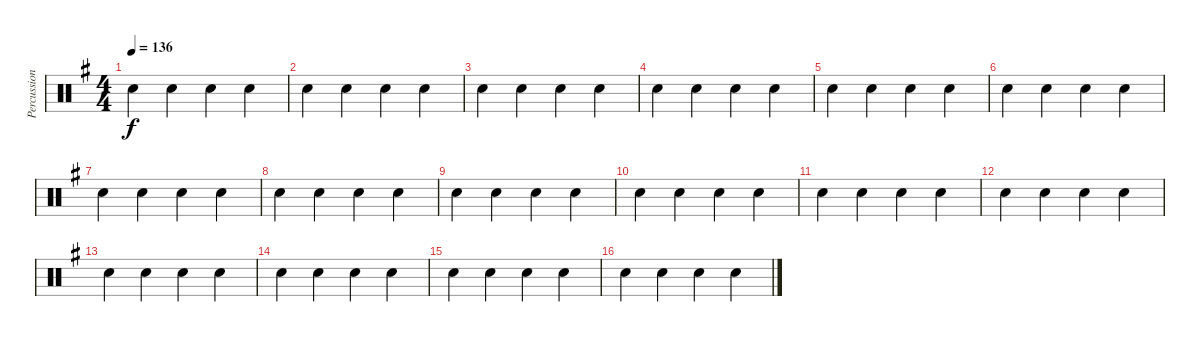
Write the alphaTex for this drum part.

\track ("Percussions" "Percussion") {instrument percussion}
\staff {score}
\articulation defaults
\ts (4 4)
\tempo 136
\clef neutral
\ks g "Hand Clap (hit)".4{dy f} "Hand Clap (hit)".4 "Hand Clap (hit)".4 "Hand Clap (hit)".4
|
"Hand Clap (hit)".4 "Hand Clap (hit)".4 "Hand Clap (hit)".4 "Hand Clap (hit)".4 |
"Hand Clap (hit)".4 "Hand Clap (hit)".4 "Hand Clap (hit)".4 "Hand Clap (hit)".4 |
"Hand Clap (hit)".4 "Hand Clap (hit)".4 "Hand Clap (hit)".4 "Hand Clap (hit)".4 |
"Hand Clap (hit)".4 "Hand Clap (hit)".4 "Hand Clap (hit)".4 "Hand Clap (hit)".4 |
"Hand Clap (hit)".4 "Hand Clap (hit)".4 "Hand Clap (hit)".4 "Hand Clap (hit)".4 |
"Hand Clap (hit)".4 "Hand Clap (hit)".4 "Hand Clap (hit)".4 "Hand Clap (hit)".4 |
"Hand Clap (hit)".4 "Hand Clap (hit)".4 "Hand Clap (hit)".4 "Hand Clap (hit)".4 |
"Hand Clap (hit)".4 "Hand Clap (hit)".4 "Hand Clap (hit)".4 "Hand Clap (hit)".4 |
"Hand Clap (hit)".4 "Hand Clap (hit)".4 "Hand Clap (hit)".4 "Hand Clap (hit)".4 |
"Hand Clap (hit)".4 "Hand Clap (hit)".4 "Hand Clap (hit)".4 "Hand Clap (hit)".4 |
"Hand Clap (hit)".4 "Hand Clap (hit)".4 "Hand Clap (hit)".4 "Hand Clap (hit)".4 |
"Hand Clap (hit)".4 "Hand Clap (hit)".4 "Hand Clap (hit)".4 "Hand Clap (hit)".4 |
"Hand Clap (hit)".4 "Hand Clap (hit)".4 "Hand Clap (hit)".4 "Hand Clap (hit)".4 |
"Hand Clap (hit)".4 "Hand Clap (hit)".4 "Hand Clap (hit)".4 "Hand Clap (hit)".4 |
"Hand Clap (hit)".4 "Hand Clap (hit)".4 "Hand Clap (hit)".4 "Hand Clap (hit)".4
